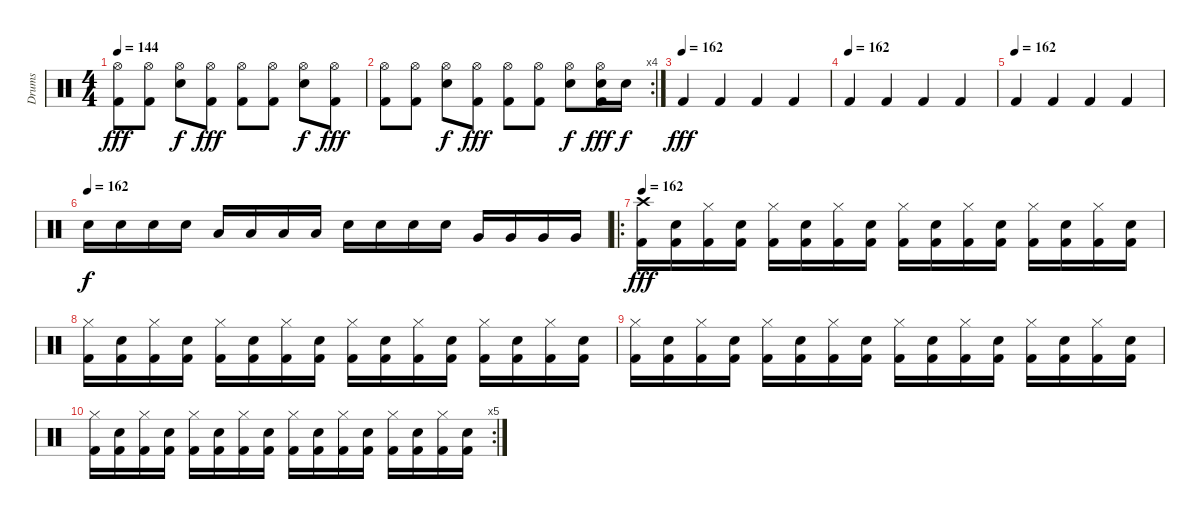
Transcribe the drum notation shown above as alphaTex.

\track ("Drums" "Drums") {instrument percussion}
\staff {score}
\articulation defaults
\ts (4 4)
\tempo 144
\clef neutral
\ks c
("Hi-Hat (open)" "Kick (hit) 2").8{dy fff} ("Hi-Hat (open)" "Kick (hit) 2").8 ("Hi-Hat (open)" "Snare (hit) 2").8{dy f} ("Hi-Hat (open)" "Kick (hit) 2").8{dy fff} ("Hi-Hat (open)" "Kick (hit) 2").8 ("Hi-Hat (open)" "Kick (hit) 2").8 ("Hi-Hat (open)" "Snare (hit) 2").8{dy f} ("Hi-Hat (open)" "Kick (hit) 2").8{dy fff} |
\rc 4
("Hi-Hat (open)" "Kick (hit) 2").8 ("Hi-Hat (open)" "Kick (hit) 2").8 ("Hi-Hat (open)" "Snare (hit) 2").8{dy f} ("Hi-Hat (open)" "Kick (hit) 2").8{dy fff} ("Hi-Hat (open)" "Kick (hit) 2").8 ("Hi-Hat (open)" "Kick (hit) 2").8 ("Hi-Hat (open)" "Snare (hit) 2").8{dy f} ("Hi-Hat (open)" "Snare (hit) 2" "Kick (hit) 2").16{dy fff} "Snare (hit) 2".16{dy f} |
\tempo (162)
"Kick (hit) 2".4{dy fff} "Kick (hit) 2".4 "Kick (hit) 2".4 "Kick (hit) 2".4 |
\tempo (162)
"Kick (hit) 2".4 "Kick (hit) 2".4 "Kick (hit) 2".4 "Kick (hit) 2".4 |
\tempo (162)
"Kick (hit) 2".4 "Kick (hit) 2".4 "Kick (hit) 2".4 "Kick (hit) 2".4 |
\tempo (162)
"Snare (hit) 2".16{dy f} "Snare (hit) 2".16 "Snare (hit) 2".16 "Snare (hit) 2".16 "Low Tom (hit)".16 "Low Tom (hit)".16 "Low Tom (hit)".16 "Low Tom (hit)".16 "Snare (hit) 2".16 "Snare (hit) 2".16 "Snare (hit) 2".16 "Snare (hit) 2".16 "Very Low Tom (hit)".16 "Very Low Tom (hit)".16 "Very Low Tom (hit)".16 "Very Low Tom (hit)".16 |
\ro
\tempo 162
("Crash high (hit)" "Kick (hit) 2").16{dy fff} ("Snare (hit) 2" "Kick (hit) 2").16 ("Hi-Hat (closed)" "Kick (hit) 2").16 ("Snare (hit) 2" "Kick (hit) 2").16 ("Hi-Hat (closed)" "Kick (hit) 2").16 ("Snare (hit) 2" "Kick (hit) 2").16 ("Hi-Hat (closed)" "Kick (hit) 2").16 ("Snare (hit) 2" "Kick (hit) 2").16 ("Hi-Hat (closed)" "Kick (hit) 2").16 ("Snare (hit) 2" "Kick (hit) 2").16 ("Hi-Hat (closed)" "Kick (hit) 2").16 ("Snare (hit) 2" "Kick (hit) 2").16 ("Hi-Hat (closed)" "Kick (hit) 2").16 ("Snare (hit) 2" "Kick (hit) 2").16 ("Hi-Hat (closed)" "Kick (hit) 2").16 ("Snare (hit) 2" "Kick (hit) 2").16 |
("Hi-Hat (closed)" "Kick (hit) 2").16 ("Snare (hit) 2" "Kick (hit) 2").16 ("Hi-Hat (closed)" "Kick (hit) 2").16 ("Snare (hit) 2" "Kick (hit) 2").16 ("Hi-Hat (closed)" "Kick (hit) 2").16 ("Snare (hit) 2" "Kick (hit) 2").16 ("Hi-Hat (closed)" "Kick (hit) 2").16 ("Snare (hit) 2" "Kick (hit) 2").16 ("Hi-Hat (closed)" "Kick (hit) 2").16 ("Snare (hit) 2" "Kick (hit) 2").16 ("Hi-Hat (closed)" "Kick (hit) 2").16 ("Snare (hit) 2" "Kick (hit) 2").16 ("Hi-Hat (closed)" "Kick (hit) 2").16 ("Snare (hit) 2" "Kick (hit) 2").16 ("Hi-Hat (closed)" "Kick (hit) 2").16 ("Snare (hit) 2" "Kick (hit) 2").16 |
("Hi-Hat (closed)" "Kick (hit) 2").16 ("Snare (hit) 2" "Kick (hit) 2").16 ("Hi-Hat (closed)" "Kick (hit) 2").16 ("Snare (hit) 2" "Kick (hit) 2").16 ("Hi-Hat (closed)" "Kick (hit) 2").16 ("Snare (hit) 2" "Kick (hit) 2").16 ("Hi-Hat (closed)" "Kick (hit) 2").16 ("Snare (hit) 2" "Kick (hit) 2").16 ("Hi-Hat (closed)" "Kick (hit) 2").16 ("Snare (hit) 2" "Kick (hit) 2").16 ("Hi-Hat (closed)" "Kick (hit) 2").16 ("Snare (hit) 2" "Kick (hit) 2").16 ("Hi-Hat (closed)" "Kick (hit) 2").16 ("Snare (hit) 2" "Kick (hit) 2").16 ("Hi-Hat (closed)" "Kick (hit) 2").16 ("Snare (hit) 2" "Kick (hit) 2").16 |
\rc 5
("Hi-Hat (closed)" "Kick (hit) 2").16 ("Snare (hit) 2" "Kick (hit) 2").16 ("Hi-Hat (closed)" "Kick (hit) 2").16 ("Snare (hit) 2" "Kick (hit) 2").16 ("Hi-Hat (closed)" "Kick (hit) 2").16 ("Snare (hit) 2" "Kick (hit) 2").16 ("Hi-Hat (closed)" "Kick (hit) 2").16 ("Snare (hit) 2" "Kick (hit) 2").16 ("Hi-Hat (closed)" "Kick (hit) 2").16 ("Snare (hit) 2" "Kick (hit) 2").16 ("Hi-Hat (closed)" "Kick (hit) 2").16 ("Snare (hit) 2" "Kick (hit) 2").16 ("Hi-Hat (closed)" "Kick (hit) 2").16 ("Snare (hit) 2" "Kick (hit) 2").16 ("Hi-Hat (closed)" "Kick (hit) 2").16 ("Snare (hit) 2" "Kick (hit) 2").16
